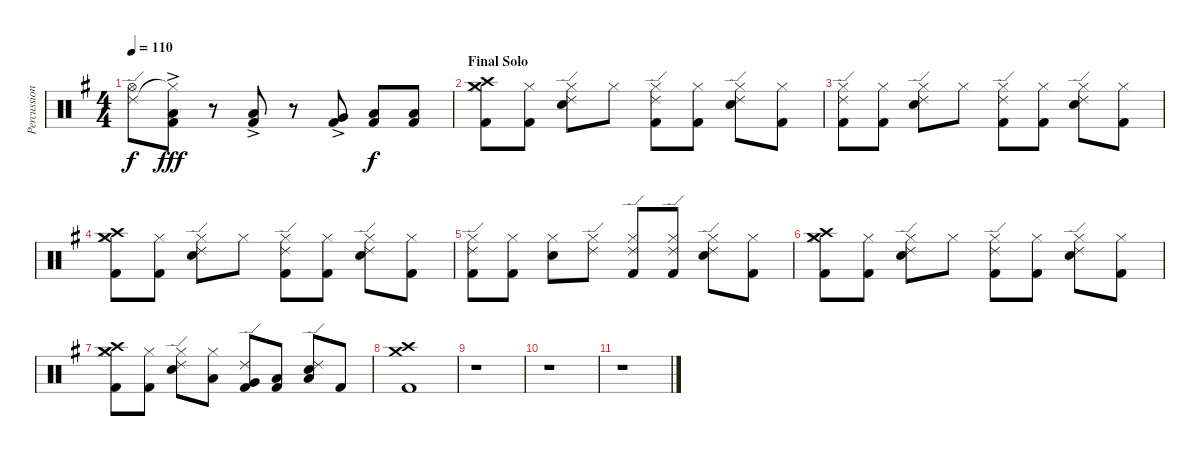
\track ("Percussion" "Percussion") {instrument percussion}
\staff {score}
\articulation defaults
\ts (4 4)
\tempo 110
\clef neutral
\ks g
("Ride (edge) 2" "Hi-Hat (open)").8{dy f} ("Hi-Hat (closed)"{t} "Kick (hit) 2"{ac} "Low Tom (hit)").8{dy fff} r.8 ("Kick (hit) 2"{ac} "Low Tom (hit)").8 r.8 ("Kick (hit) 2"{ac} "Very Low Tom (hit)").8 ("Kick (hit) 2" "Low Floor Tom (hit)").8{dy f} ("Kick (hit) 2" "Low Floor Tom (hit)").8 |
\section ("" "Final Solo")
("Crash medium (hit)" "Hi-Hat (closed)" "Crash high (hit)" "Kick (hit) 2").8 ("Hi-Hat (closed)" "Kick (hit) 2").8 ("Ride (edge) 2" "Hi-Hat (closed)" "Electric Snare (hit)").8 "Hi-Hat (closed)".8 ("Ride (edge) 2" "Hi-Hat (closed)" "Kick (hit) 2").8 ("Hi-Hat (closed)" "Kick (hit) 2").8 ("Ride (edge) 2" "Hi-Hat (closed)" "Electric Snare (hit)").8 ("Hi-Hat (closed)" "Kick (hit) 2").8 |
("Ride (edge) 2" "Hi-Hat (closed)" "Kick (hit) 2").8 ("Hi-Hat (closed)" "Kick (hit) 2").8 ("Ride (edge) 2" "Hi-Hat (closed)" "Electric Snare (hit)").8 "Hi-Hat (closed)".8 ("Ride (edge) 2" "Hi-Hat (closed)" "Kick (hit) 2").8 ("Hi-Hat (closed)" "Kick (hit) 2").8 ("Ride (edge) 2" "Hi-Hat (closed)" "Electric Snare (hit)").8 ("Hi-Hat (closed)" "Kick (hit) 2").8 |
("Crash medium (hit)" "Hi-Hat (closed)" "Crash high (hit)" "Kick (hit) 2").8 ("Hi-Hat (closed)" "Kick (hit) 2").8 ("Ride (edge) 2" "Hi-Hat (closed)" "Electric Snare (hit)").8 "Hi-Hat (closed)".8 ("Ride (edge) 2" "Hi-Hat (closed)" "Kick (hit) 2").8 ("Hi-Hat (closed)" "Kick (hit) 2").8 ("Ride (edge) 2" "Hi-Hat (closed)" "Electric Snare (hit)").8 ("Hi-Hat (closed)" "Kick (hit) 2").8 |
("Ride (edge) 2" "Hi-Hat (closed)" "Kick (hit) 2").8 ("Hi-Hat (closed)" "Kick (hit) 2").8 ("Hi-Hat (closed)" "Electric Snare (hit)").8 ("Ride (edge) 2" "Hi-Hat (closed)").8 ("Ride (edge) 2" "Hi-Hat (closed)" "Kick (hit) 2").8 ("Ride (edge) 2" "Hi-Hat (closed)" "Kick (hit) 2").8 ("Ride (edge) 2" "Hi-Hat (closed)" "Electric Snare (hit)").8 ("Hi-Hat (closed)" "Kick (hit) 2").8 |
("Crash medium (hit)" "Hi-Hat (closed)" "Crash high (hit)" "Kick (hit) 2").8 ("Hi-Hat (closed)" "Kick (hit) 2").8 ("Ride (edge) 2" "Hi-Hat (closed)" "Electric Snare (hit)").8 "Hi-Hat (closed)".8 ("Ride (edge) 2" "Hi-Hat (closed)" "Kick (hit) 2").8 ("Hi-Hat (closed)" "Kick (hit) 2").8 ("Ride (edge) 2" "Hi-Hat (closed)" "Electric Snare (hit)").8 ("Hi-Hat (closed)" "Kick (hit) 2").8 |
("Crash medium (hit)" "Hi-Hat (closed)" "Crash high (hit)" "Kick (hit) 2").8 ("Hi-Hat (closed)" "Kick (hit) 2").8 ("Ride (edge) 2" "Hi-Hat (closed)" "Electric Snare (hit)").8 ("Hi-Hat (closed)" "Low Tom (hit)").8 ("Ride (edge) 2" "Very Low Tom (hit)" "Kick (hit) 2").8 ("Low Floor Tom (hit)" "Kick (hit) 2").8 ("Ride (edge) 2" "Low Floor Tom (hit)" "Electric Snare (hit)").8 "Kick (hit) 2".8 |
("Crash medium (hit)" "Crash high (hit)" "Kick (hit) 2").1 |
r.1 |
r.1 |
r.1
